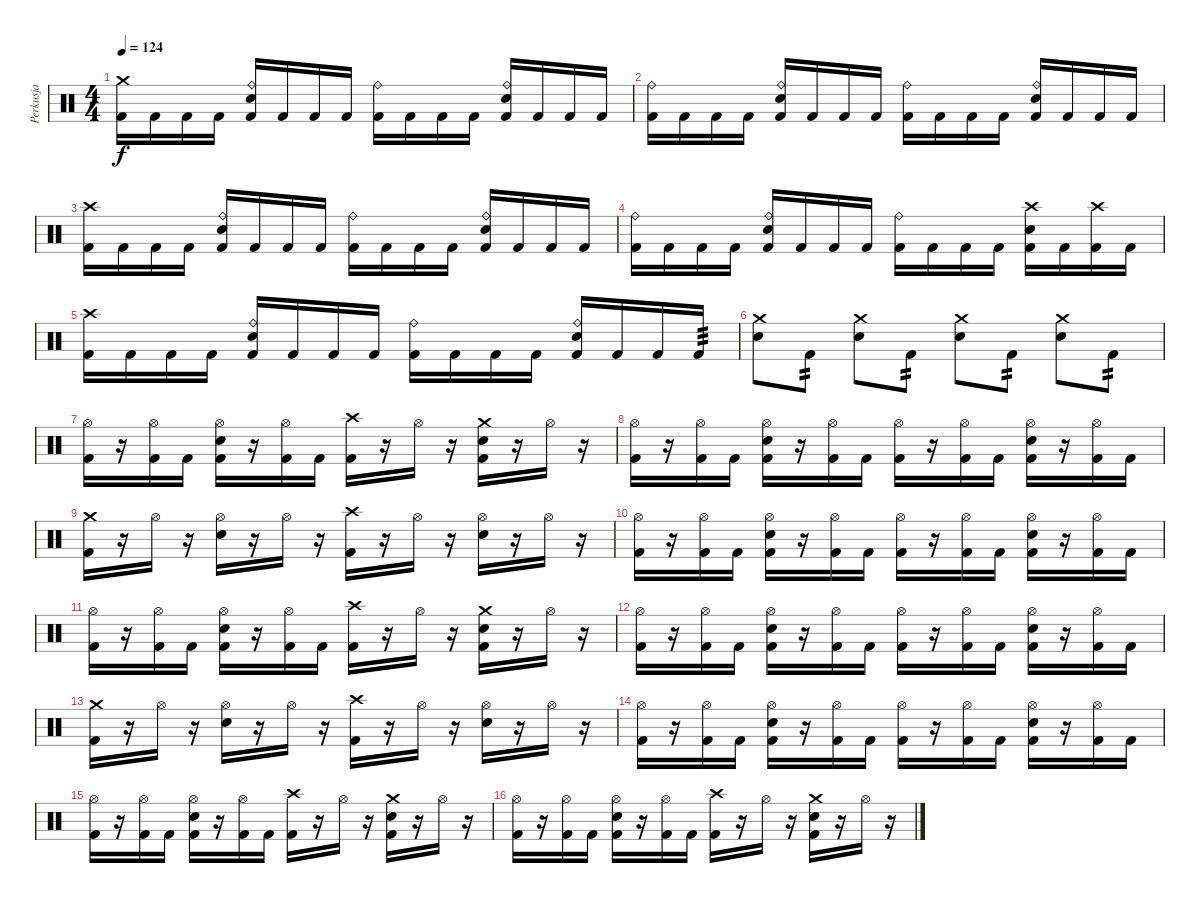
\track ("Perkusja" "Perkusja") {instrument percussion}
\staff {score}
\articulation defaults
\ts (4 4)
\tempo 124
\clef neutral
\ks c
("Crash medium (hit)" "Kick (hit) 2").16{dy f} "Kick (hit) 2".16 "Kick (hit) 2".16 "Kick (hit) 2".16 ("Ride (bell)" "Snare (hit) 2" "Kick (hit) 2").16 "Kick (hit) 2".16 "Kick (hit) 2".16 "Kick (hit) 2".16 ("Ride (bell)" "Kick (hit) 2").16 "Kick (hit) 2".16 "Kick (hit) 2".16 "Kick (hit) 2".16 ("Ride (bell)" "Snare (hit) 2" "Kick (hit) 2").16 "Kick (hit) 2".16 "Kick (hit) 2".16 "Kick (hit) 2".16 |
("Ride (bell)" "Kick (hit) 2").16 "Kick (hit) 2".16 "Kick (hit) 2".16 "Kick (hit) 2".16 ("Ride (bell)" "Snare (hit) 2" "Kick (hit) 2").16 "Kick (hit) 2".16 "Kick (hit) 2".16 "Kick (hit) 2".16 ("Ride (bell)" "Kick (hit) 2").16 "Kick (hit) 2".16 "Kick (hit) 2".16 "Kick (hit) 2".16 ("Ride (bell)" "Snare (hit) 2" "Kick (hit) 2").16 "Kick (hit) 2".16 "Kick (hit) 2".16 "Kick (hit) 2".16 |
("Crash high (hit)" "Kick (hit) 2").16 "Kick (hit) 2".16 "Kick (hit) 2".16 "Kick (hit) 2".16 ("Ride (bell)" "Snare (hit) 2" "Kick (hit) 2").16 "Kick (hit) 2".16 "Kick (hit) 2".16 "Kick (hit) 2".16 ("Ride (bell)" "Kick (hit) 2").16 "Kick (hit) 2".16 "Kick (hit) 2".16 "Kick (hit) 2".16 ("Ride (bell)" "Snare (hit) 2" "Kick (hit) 2").16 "Kick (hit) 2".16 "Kick (hit) 2".16 "Kick (hit) 2".16 |
("Ride (bell)" "Kick (hit) 2").16 "Kick (hit) 2".16 "Kick (hit) 2".16 "Kick (hit) 2".16 ("Ride (bell)" "Snare (hit) 2" "Kick (hit) 2").16 "Kick (hit) 2".16 "Kick (hit) 2".16 "Kick (hit) 2".16 ("Ride (bell)" "Kick (hit) 2").16 "Kick (hit) 2".16 "Kick (hit) 2".16 "Kick (hit) 2".16 ("Crash high (hit)" "Snare (hit) 2" "Kick (hit) 2").16 "Kick (hit) 2".16 ("Crash high (hit)" "Kick (hit) 2").16 "Kick (hit) 2".16 |
("Crash high (hit)" "Kick (hit) 2").16 "Kick (hit) 2".16 "Kick (hit) 2".16 "Kick (hit) 2".16 ("Ride (bell)" "Snare (hit) 2" "Kick (hit) 2").16 "Kick (hit) 2".16 "Kick (hit) 2".16 "Kick (hit) 2".16 ("Ride (bell)" "Kick (hit) 2").16 "Kick (hit) 2".16 "Kick (hit) 2".16 "Kick (hit) 2".16 ("Ride (bell)" "Snare (hit) 2" "Kick (hit) 2").16 "Kick (hit) 2".16 "Kick (hit) 2".16 "Kick (hit) 2".16{tp 3} |
("Crash medium (hit)" "Snare (hit) 2").8 "Kick (hit) 2".8{tp 2} ("Crash medium (hit)" "Snare (hit) 2").8 "Kick (hit) 2".8{tp 2} ("Crash medium (hit)" "Snare (hit) 2").8 "Kick (hit) 2".8{tp 2} ("Crash medium (hit)" "Snare (hit) 2").8 "Kick (hit) 2".8{tp 2} |
("Hi-Hat (open)" "Kick (hit) 2").16 r.16 ("Hi-Hat (open)" "Kick (hit) 2").16 "Kick (hit) 2".16 ("Snare (hit) 2" "Hi-Hat (open)" "Kick (hit) 2").16 r.16 ("Hi-Hat (open)" "Kick (hit) 2").16 "Kick (hit) 2".16 ("Crash high (hit)" "Kick (hit) 2").16 r.16 "Hi-Hat (open)".16 r.16 ("Snare (hit) 2" "Crash medium (hit)" "Kick (hit) 2").16 r.16 "Hi-Hat (open)".16 r.16 |
("Hi-Hat (open)" "Kick (hit) 2").16 r.16 ("Hi-Hat (open)" "Kick (hit) 2").16 "Kick (hit) 2".16 ("Snare (hit) 2" "Hi-Hat (open)" "Kick (hit) 2").16 r.16 ("Hi-Hat (open)" "Kick (hit) 2").16 "Kick (hit) 2".16 ("Hi-Hat (open)" "Kick (hit) 2").16 r.16 ("Hi-Hat (open)" "Kick (hit) 2").16 "Kick (hit) 2".16 ("Snare (hit) 2" "Hi-Hat (open)" "Kick (hit) 2").16 r.16 ("Hi-Hat (open)" "Kick (hit) 2").16 "Kick (hit) 2".16 |
("Crash medium (hit)" "Kick (hit) 2").16 r.16 "Hi-Hat (open)".16 r.16 ("Snare (hit) 2" "Hi-Hat (open)").16 r.16 "Hi-Hat (open)".16 r.16 ("Crash high (hit)" "Kick (hit) 2").16 r.16 "Hi-Hat (open)".16 r.16 ("Snare (hit) 2" "Hi-Hat (open)").16 r.16 "Hi-Hat (open)".16 r.16 |
("Hi-Hat (open)" "Kick (hit) 2").16 r.16 ("Hi-Hat (open)" "Kick (hit) 2").16 "Kick (hit) 2".16 ("Snare (hit) 2" "Hi-Hat (open)" "Kick (hit) 2").16 r.16 ("Hi-Hat (open)" "Kick (hit) 2").16 "Kick (hit) 2".16 ("Hi-Hat (open)" "Kick (hit) 2").16 r.16 ("Hi-Hat (open)" "Kick (hit) 2").16 "Kick (hit) 2".16 ("Snare (hit) 2" "Hi-Hat (open)" "Kick (hit) 2").16 r.16 ("Hi-Hat (open)" "Kick (hit) 2").16 "Kick (hit) 2".16 |
("Hi-Hat (open)" "Kick (hit) 2").16 r.16 ("Hi-Hat (open)" "Kick (hit) 2").16 "Kick (hit) 2".16 ("Snare (hit) 2" "Hi-Hat (open)" "Kick (hit) 2").16 r.16 ("Hi-Hat (open)" "Kick (hit) 2").16 "Kick (hit) 2".16 ("Crash high (hit)" "Kick (hit) 2").16 r.16 "Hi-Hat (open)".16 r.16 ("Snare (hit) 2" "Crash medium (hit)" "Kick (hit) 2").16 r.16 "Hi-Hat (open)".16 r.16 |
("Hi-Hat (open)" "Kick (hit) 2").16 r.16 ("Hi-Hat (open)" "Kick (hit) 2").16 "Kick (hit) 2".16 ("Snare (hit) 2" "Hi-Hat (open)" "Kick (hit) 2").16 r.16 ("Hi-Hat (open)" "Kick (hit) 2").16 "Kick (hit) 2".16 ("Hi-Hat (open)" "Kick (hit) 2").16 r.16 ("Hi-Hat (open)" "Kick (hit) 2").16 "Kick (hit) 2".16 ("Snare (hit) 2" "Hi-Hat (open)" "Kick (hit) 2").16 r.16 ("Hi-Hat (open)" "Kick (hit) 2").16 "Kick (hit) 2".16 |
("Crash medium (hit)" "Kick (hit) 2").16 r.16 "Hi-Hat (open)".16 r.16 ("Snare (hit) 2" "Hi-Hat (open)").16 r.16 "Hi-Hat (open)".16 r.16 ("Crash high (hit)" "Kick (hit) 2").16 r.16 "Hi-Hat (open)".16 r.16 ("Snare (hit) 2" "Hi-Hat (open)").16 r.16 "Hi-Hat (open)".16 r.16 |
("Hi-Hat (open)" "Kick (hit) 2").16 r.16 ("Hi-Hat (open)" "Kick (hit) 2").16 "Kick (hit) 2".16 ("Snare (hit) 2" "Hi-Hat (open)" "Kick (hit) 2").16 r.16 ("Hi-Hat (open)" "Kick (hit) 2").16 "Kick (hit) 2".16 ("Hi-Hat (open)" "Kick (hit) 2").16 r.16 ("Hi-Hat (open)" "Kick (hit) 2").16 "Kick (hit) 2".16 ("Snare (hit) 2" "Hi-Hat (open)" "Kick (hit) 2").16 r.16 ("Hi-Hat (open)" "Kick (hit) 2").16 "Kick (hit) 2".16 |
("Hi-Hat (open)" "Kick (hit) 2").16 r.16 ("Hi-Hat (open)" "Kick (hit) 2").16 "Kick (hit) 2".16 ("Snare (hit) 2" "Hi-Hat (open)" "Kick (hit) 2").16 r.16 ("Hi-Hat (open)" "Kick (hit) 2").16 "Kick (hit) 2".16 ("Crash high (hit)" "Kick (hit) 2").16 r.16 "Hi-Hat (open)".16 r.16 ("Snare (hit) 2" "Crash medium (hit)" "Kick (hit) 2").16 r.16 "Hi-Hat (open)".16 r.16 |
("Hi-Hat (open)" "Kick (hit) 2").16 r.16 ("Hi-Hat (open)" "Kick (hit) 2").16 "Kick (hit) 2".16 ("Snare (hit) 2" "Hi-Hat (open)" "Kick (hit) 2").16 r.16 ("Hi-Hat (open)" "Kick (hit) 2").16 "Kick (hit) 2".16 ("Crash high (hit)" "Kick (hit) 2").16 r.16 "Hi-Hat (open)".16 r.16 ("Snare (hit) 2" "Crash medium (hit)" "Kick (hit) 2").16 r.16 "Hi-Hat (open)".16 r.16
